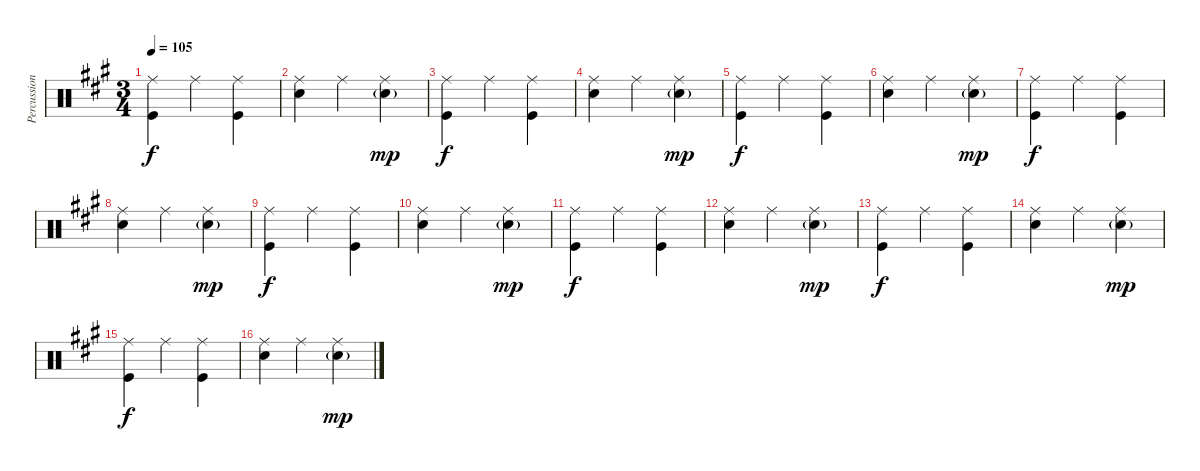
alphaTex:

\track ("Percussion" "Percussion") {instrument percussion}
\staff {score}
\articulation defaults
\ts (3 4)
\tempo 105
\clef neutral
\ks a
("Ride (middle)" "Kick (hit)").4{dy f} "Ride (middle)".4 ("Ride (middle)" "Kick (hit)").4 |
("Ride (middle)" "Snare (hit) 2").4 "Ride (middle)".4 ("Ride (middle)" "Snare (hit) 2"{g}).4{dy mp} |
("Ride (middle)" "Kick (hit)").4{dy f} "Ride (middle)".4 ("Ride (middle)" "Kick (hit)").4 |
("Ride (middle)" "Snare (hit) 2").4 "Ride (middle)".4 ("Ride (middle)" "Snare (hit) 2"{g}).4{dy mp} |
("Ride (middle)" "Kick (hit)").4{dy f} "Ride (middle)".4 ("Ride (middle)" "Kick (hit)").4 |
("Ride (middle)" "Snare (hit) 2").4 "Ride (middle)".4 ("Ride (middle)" "Snare (hit) 2"{g}).4{dy mp} |
("Ride (middle)" "Kick (hit)").4{dy f} "Ride (middle)".4 ("Ride (middle)" "Kick (hit)").4 |
("Ride (middle)" "Snare (hit) 2").4 "Ride (middle)".4 ("Ride (middle)" "Snare (hit) 2"{g}).4{dy mp} |
("Ride (middle)" "Kick (hit)").4{dy f} "Ride (middle)".4 ("Ride (middle)" "Kick (hit)").4 |
("Ride (middle)" "Snare (hit) 2").4 "Ride (middle)".4 ("Ride (middle)" "Snare (hit) 2"{g}).4{dy mp} |
("Ride (middle)" "Kick (hit)").4{dy f} "Ride (middle)".4 ("Ride (middle)" "Kick (hit)").4 |
("Ride (middle)" "Snare (hit) 2").4 "Ride (middle)".4 ("Ride (middle)" "Snare (hit) 2"{g}).4{dy mp} |
("Ride (middle)" "Kick (hit)").4{dy f} "Ride (middle)".4 ("Ride (middle)" "Kick (hit)").4 |
("Ride (middle)" "Snare (hit) 2").4 "Ride (middle)".4 ("Ride (middle)" "Snare (hit) 2"{g}).4{dy mp} |
("Ride (middle)" "Kick (hit)").4{dy f} "Ride (middle)".4 ("Ride (middle)" "Kick (hit)").4 |
("Ride (middle)" "Snare (hit) 2").4 "Ride (middle)".4 ("Ride (middle)" "Snare (hit) 2"{g}).4{dy mp}
